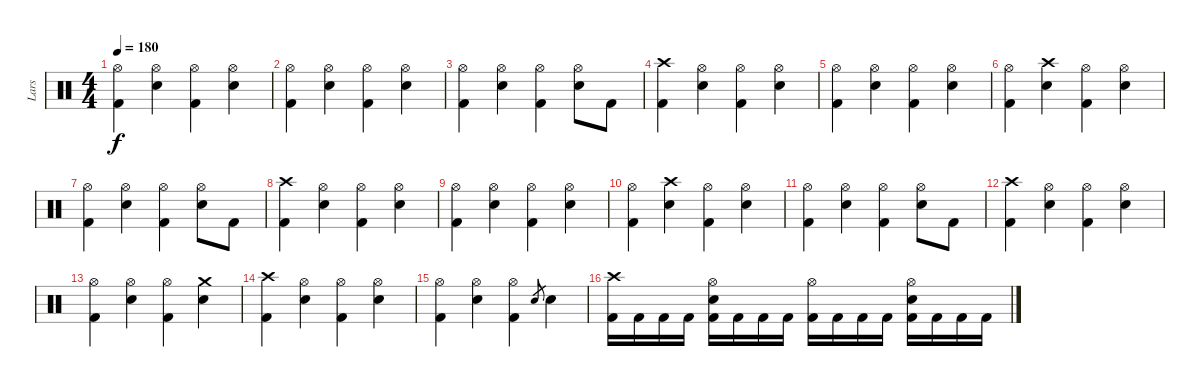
\track ("Lars" "Lars") {instrument percussion}
\staff {score}
\articulation defaults
\ts (4 4)
\tempo 180
\clef neutral
\ks c
("Hi-Hat (open)" "Kick (hit) 2").4{dy f} ("Hi-Hat (open)" "Electric Snare (hit)").4 ("Hi-Hat (open)" "Kick (hit) 2").4 ("Hi-Hat (open)" "Electric Snare (hit)").4 |
("Hi-Hat (open)" "Kick (hit) 2").4 ("Hi-Hat (open)" "Electric Snare (hit)").4 ("Hi-Hat (open)" "Kick (hit) 2").4 ("Hi-Hat (open)" "Electric Snare (hit)").4 |
("Hi-Hat (open)" "Kick (hit) 2").4 ("Hi-Hat (open)" "Electric Snare (hit)").4 ("Hi-Hat (open)" "Kick (hit) 2").4 ("Hi-Hat (open)" "Electric Snare (hit)").8 "Kick (hit) 2".8 |
("Crash high (hit)" "Kick (hit) 2").4 ("Hi-Hat (open)" "Electric Snare (hit)").4 ("Hi-Hat (open)" "Kick (hit) 2").4 ("Hi-Hat (open)" "Electric Snare (hit)").4 |
("Hi-Hat (open)" "Kick (hit) 2").4 ("Hi-Hat (open)" "Electric Snare (hit)").4 ("Hi-Hat (open)" "Kick (hit) 2").4 ("Hi-Hat (open)" "Electric Snare (hit)").4 |
("Hi-Hat (open)" "Kick (hit) 2").4 ("Crash high (hit)" "Electric Snare (hit)").4 ("Hi-Hat (open)" "Kick (hit) 2").4 ("Hi-Hat (open)" "Electric Snare (hit)").4 |
("Hi-Hat (open)" "Kick (hit) 2").4 ("Hi-Hat (open)" "Electric Snare (hit)").4 ("Hi-Hat (open)" "Kick (hit) 2").4 ("Hi-Hat (open)" "Electric Snare (hit)").8 "Kick (hit) 2".8 |
("Crash high (hit)" "Kick (hit) 2").4 ("Hi-Hat (open)" "Electric Snare (hit)").4 ("Hi-Hat (open)" "Kick (hit) 2").4 ("Hi-Hat (open)" "Electric Snare (hit)").4 |
("Hi-Hat (open)" "Kick (hit) 2").4 ("Hi-Hat (open)" "Electric Snare (hit)").4 ("Hi-Hat (open)" "Kick (hit) 2").4 ("Hi-Hat (open)" "Electric Snare (hit)").4 |
("Hi-Hat (open)" "Kick (hit) 2").4 ("Crash high (hit)" "Electric Snare (hit)").4 ("Hi-Hat (open)" "Kick (hit) 2").4 ("Hi-Hat (open)" "Electric Snare (hit)").4 |
("Hi-Hat (open)" "Kick (hit) 2").4 ("Hi-Hat (open)" "Electric Snare (hit)").4 ("Hi-Hat (open)" "Kick (hit) 2").4 ("Hi-Hat (open)" "Electric Snare (hit)").8 "Kick (hit) 2".8 |
("Crash high (hit)" "Kick (hit) 2").4 ("Hi-Hat (open)" "Electric Snare (hit)").4 ("Hi-Hat (open)" "Kick (hit) 2").4 ("Hi-Hat (open)" "Electric Snare (hit)").4 |
("Hi-Hat (open)" "Kick (hit) 2").4 ("Hi-Hat (open)" "Electric Snare (hit)").4 ("Hi-Hat (open)" "Kick (hit) 2").4 ("Crash medium (hit)" "Electric Snare (hit)").4 |
("Crash high (hit)" "Kick (hit) 2").4 ("Hi-Hat (open)" "Electric Snare (hit)").4 ("Hi-Hat (open)" "Kick (hit) 2").4 ("Hi-Hat (open)" "Electric Snare (hit)").4 |
("Hi-Hat (open)" "Kick (hit) 2").4 ("Hi-Hat (open)" "Electric Snare (hit)").4 ("Hi-Hat (open)" "Kick (hit) 2").4 "Electric Snare (hit)".8{gr} "Electric Snare (hit)".4 |
("Crash high (hit)" "Kick (hit) 2").16 "Kick (hit) 2".16 "Kick (hit) 2".16 "Kick (hit) 2".16 ("Hi-Hat (open)" "Electric Snare (hit)" "Kick (hit) 2").16 "Kick (hit) 2".16 "Kick (hit) 2".16 "Kick (hit) 2".16 ("Hi-Hat (open)" "Kick (hit) 2").16 "Kick (hit) 2".16 "Kick (hit) 2".16 "Kick (hit) 2".16 ("Hi-Hat (open)" "Electric Snare (hit)" "Kick (hit) 2").16 "Kick (hit) 2".16 "Kick (hit) 2".16 "Kick (hit) 2".16
